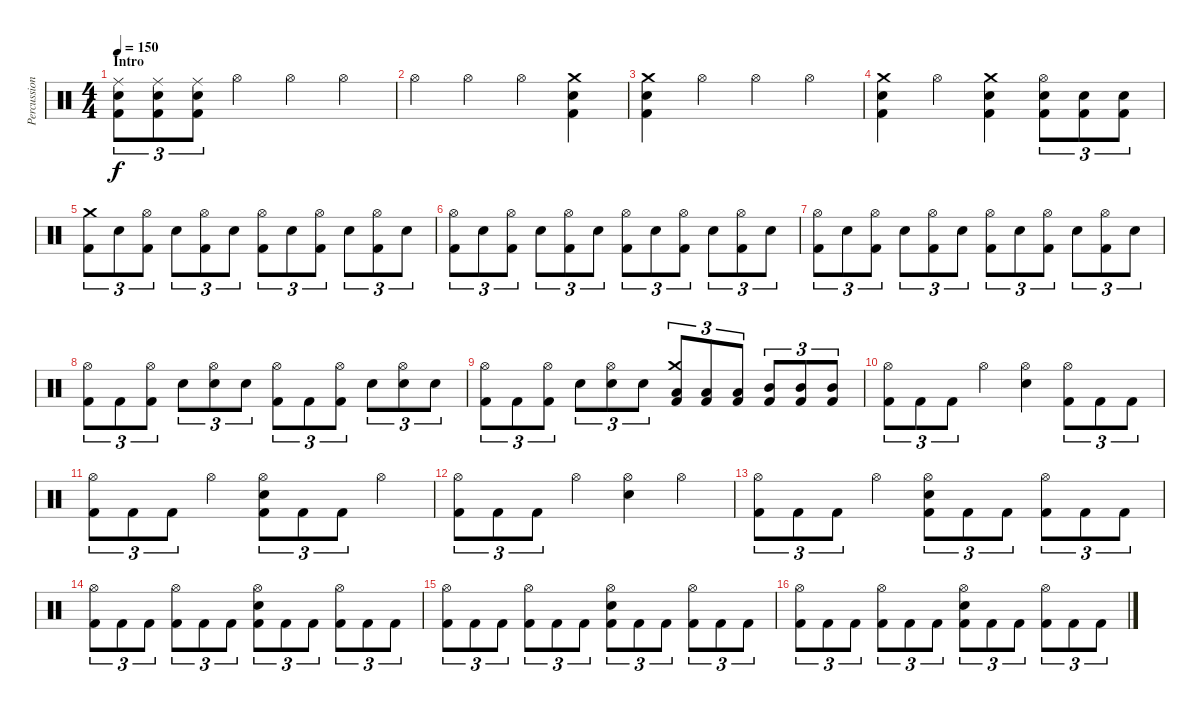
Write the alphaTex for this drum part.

\track ("Percussion" "Percussion") {instrument percussion}
\staff {score}
\articulation defaults
\ts (4 4)
\section ("" "Intro")
\tempo 150
\clef neutral
\ks c
("Ride (middle)" "Electric Snare (hit)" "Kick (hit) 2").8{tu (3 2) dy f} ("Ride (middle)" "Electric Snare (hit)" "Kick (hit) 2").8{tu (3 2)} ("Ride (middle)" "Electric Snare (hit)" "Kick (hit) 2").8{tu (3 2)} "Hi-Hat (open)".4 "Hi-Hat (open)".4 "Hi-Hat (open)".4 |
"Hi-Hat (open)".4 "Hi-Hat (open)".4 "Hi-Hat (open)".4 ("Crash medium (hit)" "Electric Snare (hit)" "Kick (hit) 2").4 |
("Crash medium (hit)" "Electric Snare (hit)" "Kick (hit) 2").4 "Hi-Hat (open)".4 "Hi-Hat (open)".4 "Hi-Hat (open)".4 |
("Crash medium (hit)" "Electric Snare (hit)" "Kick (hit) 2").4 "Hi-Hat (open)".4 ("Crash medium (hit)" "Electric Snare (hit)" "Kick (hit) 2").4 ("Hi-Hat (open)" "Electric Snare (hit)" "Kick (hit) 2").8{tu (3 2)} ("Electric Snare (hit)" "Kick (hit) 2").8{tu (3 2)} ("Electric Snare (hit)" "Kick (hit) 2").8{tu (3 2)} |
("Crash medium (hit)" "Kick (hit) 2").8{tu (3 2)} "Electric Snare (hit)".8{tu (3 2)} ("Hi-Hat (open)" "Kick (hit) 2").8{tu (3 2)} "Electric Snare (hit)".8{tu (3 2)} ("Hi-Hat (open)" "Kick (hit) 2").8{tu (3 2)} "Electric Snare (hit)".8{tu (3 2)} ("Hi-Hat (open)" "Kick (hit) 2").8{tu (3 2)} "Electric Snare (hit)".8{tu (3 2)} ("Hi-Hat (open)" "Kick (hit) 2").8{tu (3 2)} "Electric Snare (hit)".8{tu (3 2)} ("Hi-Hat (open)" "Kick (hit) 2").8{tu (3 2)} "Electric Snare (hit)".8{tu (3 2)} |
("Hi-Hat (open)" "Kick (hit) 2").8{tu (3 2)} "Electric Snare (hit)".8{tu (3 2)} ("Hi-Hat (open)" "Kick (hit) 2").8{tu (3 2)} "Electric Snare (hit)".8{tu (3 2)} ("Hi-Hat (open)" "Kick (hit) 2").8{tu (3 2)} "Electric Snare (hit)".8{tu (3 2)} ("Hi-Hat (open)" "Kick (hit) 2").8{tu (3 2)} "Electric Snare (hit)".8{tu (3 2)} ("Hi-Hat (open)" "Kick (hit) 2").8{tu (3 2)} "Electric Snare (hit)".8{tu (3 2)} ("Hi-Hat (open)" "Kick (hit) 2").8{tu (3 2)} "Electric Snare (hit)".8{tu (3 2)} |
("Hi-Hat (open)" "Kick (hit) 2").8{tu (3 2)} "Electric Snare (hit)".8{tu (3 2)} ("Hi-Hat (open)" "Kick (hit) 2").8{tu (3 2)} "Electric Snare (hit)".8{tu (3 2)} ("Hi-Hat (open)" "Kick (hit) 2").8{tu (3 2)} "Electric Snare (hit)".8{tu (3 2)} ("Hi-Hat (open)" "Kick (hit) 2").8{tu (3 2)} "Electric Snare (hit)".8{tu (3 2)} ("Hi-Hat (open)" "Kick (hit) 2").8{tu (3 2)} "Electric Snare (hit)".8{tu (3 2)} ("Hi-Hat (open)" "Kick (hit) 2").8{tu (3 2)} "Electric Snare (hit)".8{tu (3 2)} |
("Hi-Hat (open)" "Kick (hit) 2").8{tu (3 2)} "Kick (hit) 2".8{tu (3 2)} ("Hi-Hat (open)" "Kick (hit) 2").8{tu (3 2)} "Electric Snare (hit)".8{tu (3 2)} ("Hi-Hat (open)" "Electric Snare (hit)").8{tu (3 2)} "Electric Snare (hit)".8{tu (3 2)} ("Hi-Hat (open)" "Kick (hit) 2").8{tu (3 2)} "Kick (hit) 2".8{tu (3 2)} ("Hi-Hat (open)" "Kick (hit) 2").8{tu (3 2)} "Electric Snare (hit)".8{tu (3 2)} ("Hi-Hat (open)" "Electric Snare (hit)").8{tu (3 2)} "Electric Snare (hit)".8{tu (3 2)} |
("Hi-Hat (open)" "Kick (hit) 2").8{tu (3 2)} "Kick (hit) 2".8{tu (3 2)} ("Hi-Hat (open)" "Kick (hit) 2").8{tu (3 2)} "Electric Snare (hit)".8{tu (3 2)} ("Hi-Hat (open)" "Electric Snare (hit)").8{tu (3 2)} "Electric Snare (hit)".8{tu (3 2)} ("Crash medium (hit)" "Low Tom (hit)" "Kick (hit) 2").8{tu (3 2)} ("Low Tom (hit)" "Kick (hit) 2").8{tu (3 2)} ("Low Tom (hit)" "Kick (hit) 2").8{tu (3 2)} ("Mid Tom (hit)" "Kick (hit) 2").8{tu (3 2)} ("Mid Tom (hit)" "Kick (hit) 2").8{tu (3 2)} ("Mid Tom (hit)" "Kick (hit) 2").8{tu (3 2)} |
("Hi-Hat (open)" "Kick (hit) 2").8{tu (3 2)} "Kick (hit) 2".8{tu (3 2)} "Kick (hit) 2".8{tu (3 2)} "Hi-Hat (open)".4 ("Hi-Hat (open)" "Electric Snare (hit)").4 ("Hi-Hat (open)" "Kick (hit) 2").8{tu (3 2)} "Kick (hit) 2".8{tu (3 2)} "Kick (hit) 2".8{tu (3 2)} |
("Hi-Hat (open)" "Kick (hit) 2").8{tu (3 2)} "Kick (hit) 2".8{tu (3 2)} "Kick (hit) 2".8{tu (3 2)} "Hi-Hat (open)".4 ("Hi-Hat (open)" "Electric Snare (hit)" "Kick (hit) 2").8{tu (3 2)} "Kick (hit) 2".8{tu (3 2)} "Kick (hit) 2".8{tu (3 2)} "Hi-Hat (open)".4 |
("Hi-Hat (open)" "Kick (hit) 2").8{tu (3 2)} "Kick (hit) 2".8{tu (3 2)} "Kick (hit) 2".8{tu (3 2)} "Hi-Hat (open)".4 ("Hi-Hat (open)" "Electric Snare (hit)").4 "Hi-Hat (open)".4 |
("Hi-Hat (open)" "Kick (hit) 2").8{tu (3 2)} "Kick (hit) 2".8{tu (3 2)} "Kick (hit) 2".8{tu (3 2)} "Hi-Hat (open)".4 ("Hi-Hat (open)" "Electric Snare (hit)" "Kick (hit) 2").8{tu (3 2)} "Kick (hit) 2".8{tu (3 2)} "Kick (hit) 2".8{tu (3 2)} ("Hi-Hat (open)" "Kick (hit) 2").8{tu (3 2)} "Kick (hit) 2".8{tu (3 2)} "Kick (hit) 2".8{tu (3 2)} |
("Hi-Hat (open)" "Kick (hit) 2").8{tu (3 2)} "Kick (hit) 2".8{tu (3 2)} "Kick (hit) 2".8{tu (3 2)} ("Hi-Hat (open)" "Kick (hit) 2").8{tu (3 2)} "Kick (hit) 2".8{tu (3 2)} "Kick (hit) 2".8{tu (3 2)} ("Hi-Hat (open)" "Electric Snare (hit)" "Kick (hit) 2").8{tu (3 2)} "Kick (hit) 2".8{tu (3 2)} "Kick (hit) 2".8{tu (3 2)} ("Hi-Hat (open)" "Kick (hit) 2").8{tu (3 2)} "Kick (hit) 2".8{tu (3 2)} "Kick (hit) 2".8{tu (3 2)} |
("Hi-Hat (open)" "Kick (hit) 2").8{tu (3 2)} "Kick (hit) 2".8{tu (3 2)} "Kick (hit) 2".8{tu (3 2)} ("Hi-Hat (open)" "Kick (hit) 2").8{tu (3 2)} "Kick (hit) 2".8{tu (3 2)} "Kick (hit) 2".8{tu (3 2)} ("Hi-Hat (open)" "Electric Snare (hit)" "Kick (hit) 2").8{tu (3 2)} "Kick (hit) 2".8{tu (3 2)} "Kick (hit) 2".8{tu (3 2)} ("Hi-Hat (open)" "Kick (hit) 2").8{tu (3 2)} "Kick (hit) 2".8{tu (3 2)} "Kick (hit) 2".8{tu (3 2)} |
("Hi-Hat (open)" "Kick (hit) 2").8{tu (3 2)} "Kick (hit) 2".8{tu (3 2)} "Kick (hit) 2".8{tu (3 2)} ("Hi-Hat (open)" "Kick (hit) 2").8{tu (3 2)} "Kick (hit) 2".8{tu (3 2)} "Kick (hit) 2".8{tu (3 2)} ("Hi-Hat (open)" "Electric Snare (hit)" "Kick (hit) 2").8{tu (3 2)} "Kick (hit) 2".8{tu (3 2)} "Kick (hit) 2".8{tu (3 2)} ("Hi-Hat (open)" "Kick (hit) 2").8{tu (3 2)} "Kick (hit) 2".8{tu (3 2)} "Kick (hit) 2".8{tu (3 2)}
